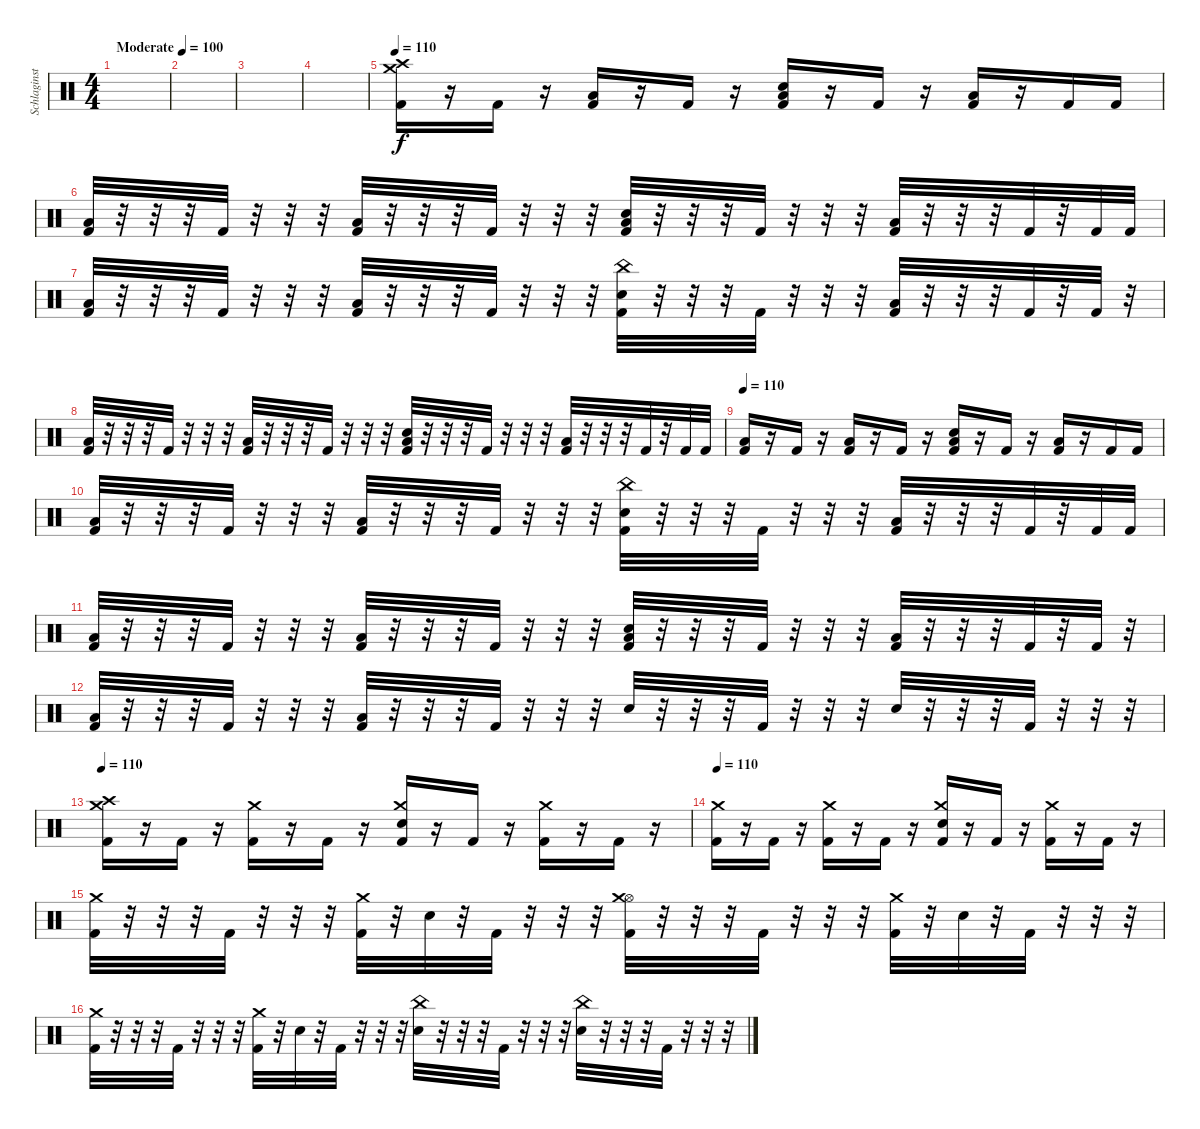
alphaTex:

\track ("Schlaginstrumente - Auswahl" "Schlaginst") {instrument percussion}
\staff {score}
\articulation defaults
\ts (4 4)
\tempo (100 "Moderate")
\clef neutral
\ks c
|
|
|
|
\tempo 110
("Kick (hit) 2" "Crash high (hit)" "Crash medium (hit)").16 r.16 "Kick (hit) 2".16 r.16 ("Kick (hit) 2" "Low Floor Tom (hit)").16 r.16 "Kick (hit) 2".16 r.16 ("Kick (hit) 2" "Electric Snare (hit)" "Low Floor Tom (hit)").16 r.16 "Kick (hit) 2".16 r.16 ("Kick (hit) 2" "Low Floor Tom (hit)").16 r.16 "Kick (hit) 2".16 "Kick (hit) 2".16 |
("Kick (hit) 2" "Low Floor Tom (hit)").32 r.32 r.32 r.32 "Kick (hit) 2".32 r.32 r.32 r.32 ("Kick (hit) 2" "Low Floor Tom (hit)").32 r.32 r.32 r.32 "Kick (hit) 2".32 r.32 r.32 r.32 ("Kick (hit) 2" "Electric Snare (hit)" "Low Floor Tom (hit)").32 r.32 r.32 r.32 "Kick (hit) 2".32 r.32 r.32 r.32 ("Kick (hit) 2" "Low Floor Tom (hit)").32 r.32 r.32 r.32 "Kick (hit) 2".32 r.32 "Kick (hit) 2".32 "Kick (hit) 2".32 |
("Kick (hit) 2" "Low Floor Tom (hit)").32 r.32 r.32 r.32 "Kick (hit) 2".32 r.32 r.32 r.32 ("Kick (hit) 2" "Low Floor Tom (hit)").32 r.32 r.32 r.32 "Kick (hit) 2".32 r.32 r.32 r.32 ("Kick (hit) 2" "Electric Snare (hit)" "China (hit)").32 r.32 r.32 r.32 "Kick (hit) 2".32 r.32 r.32 r.32 ("Kick (hit) 2" "Low Floor Tom (hit)").32 r.32 r.32 r.32 "Kick (hit) 2".32 r.32 "Kick (hit) 2".32 r.32 |
("Kick (hit) 2" "Low Floor Tom (hit)").32 r.32 r.32 r.32 "Kick (hit) 2".32 r.32 r.32 r.32 ("Kick (hit) 2" "Low Floor Tom (hit)").32 r.32 r.32 r.32 "Kick (hit) 2".32 r.32 r.32 r.32 ("Kick (hit) 2" "Electric Snare (hit)" "Low Floor Tom (hit)").32 r.32 r.32 r.32 "Kick (hit) 2".32 r.32 r.32 r.32 ("Kick (hit) 2" "Low Floor Tom (hit)").32 r.32 r.32 r.32 "Kick (hit) 2".32 r.32 "Kick (hit) 2".32 "Kick (hit) 2".32 |
\tempo 110
("Kick (hit) 2" "Low Floor Tom (hit)").16 r.16 "Kick (hit) 2".16 r.16 ("Kick (hit) 2" "Low Floor Tom (hit)").16 r.16 "Kick (hit) 2".16 r.16 ("Kick (hit) 2" "Electric Snare (hit)" "Low Floor Tom (hit)").16 r.16 "Kick (hit) 2".16 r.16 ("Kick (hit) 2" "Low Floor Tom (hit)").16 r.16 "Kick (hit) 2".16 "Kick (hit) 2".16 |
("Kick (hit) 2" "Low Floor Tom (hit)").32 r.32 r.32 r.32 "Kick (hit) 2".32 r.32 r.32 r.32 ("Kick (hit) 2" "Low Floor Tom (hit)").32 r.32 r.32 r.32 "Kick (hit) 2".32 r.32 r.32 r.32 ("Kick (hit) 2" "Electric Snare (hit)" "China (hit)").32 r.32 r.32 r.32 "Kick (hit) 2".32 r.32 r.32 r.32 ("Kick (hit) 2" "Low Floor Tom (hit)").32 r.32 r.32 r.32 "Kick (hit) 2".32 r.32 "Kick (hit) 2".32 "Kick (hit) 2".32 |
("Kick (hit) 2" "Low Floor Tom (hit)").32 r.32 r.32 r.32 "Kick (hit) 2".32 r.32 r.32 r.32 ("Kick (hit) 2" "Low Floor Tom (hit)").32 r.32 r.32 r.32 "Kick (hit) 2".32 r.32 r.32 r.32 ("Kick (hit) 2" "Electric Snare (hit)" "Low Floor Tom (hit)").32 r.32 r.32 r.32 "Kick (hit) 2".32 r.32 r.32 r.32 ("Kick (hit) 2" "Low Floor Tom (hit)").32 r.32 r.32 r.32 "Kick (hit) 2".32 r.32 "Kick (hit) 2".32 r.32 |
("Kick (hit) 2" "Low Floor Tom (hit)").32 r.32 r.32 r.32 "Kick (hit) 2".32 r.32 r.32 r.32 ("Kick (hit) 2" "Low Floor Tom (hit)").32 r.32 r.32 r.32 "Kick (hit) 2".32 r.32 r.32 r.32 "Electric Snare (hit)".32 r.32 r.32 r.32 "Kick (hit) 2".32 r.32 r.32 r.32 "Electric Snare (hit)".32 r.32 r.32 r.32 "Kick (hit) 2".32 r.32 r.32 r.32 |
\tempo 110
("Kick (hit) 2" "Crash high (hit)" "Crash medium (hit)").16 r.16 "Kick (hit) 2".16 r.16 ("Kick (hit) 2" "Crash medium (hit)").16 r.16 "Kick (hit) 2".16 r.16 ("Kick (hit) 2" "Electric Snare (hit)" "Crash medium (hit)").16 r.16 "Kick (hit) 2".16 r.16 ("Kick (hit) 2" "Crash medium (hit)").16 r.16 "Kick (hit) 2".16 r.16 |
\tempo 110
("Kick (hit) 2" "Crash medium (hit)").16 r.16 "Kick (hit) 2".16 r.16 ("Kick (hit) 2" "Crash medium (hit)").16 r.16 "Kick (hit) 2".16 r.16 ("Kick (hit) 2" "Electric Snare (hit)" "Crash medium (hit)").16 r.16 "Kick (hit) 2".16 r.16 ("Kick (hit) 2" "Crash medium (hit)").16 r.16 "Kick (hit) 2".16 r.16 |
("Kick (hit) 2" "Crash medium (hit)").32 r.32 r.32 r.32 "Kick (hit) 2".32 r.32 r.32 r.32 ("Kick (hit) 2" "Crash medium (hit)").32 r.32 "Electric Snare (hit)".32 r.32 "Kick (hit) 2".32 r.32 r.32 r.32 ("Kick (hit) 2" "Hi-Hat (open)" "Crash medium (hit)").32 r.32 r.32 r.32 "Kick (hit) 2".32 r.32 r.32 r.32 ("Kick (hit) 2" "Crash medium (hit)").32 r.32 "Electric Snare (hit)".32 r.32 "Kick (hit) 2".32 r.32 r.32 r.32 |
("Kick (hit) 2" "Crash medium (hit)").32 r.32 r.32 r.32 "Kick (hit) 2".32 r.32 r.32 r.32 ("Kick (hit) 2" "Crash medium (hit)").32 r.32 "Electric Snare (hit)".32 r.32 "Kick (hit) 2".32 r.32 r.32 r.32 ("Electric Snare (hit)" "China (hit)").32 r.32 r.32 r.32 "Kick (hit) 2".32 r.32 r.32 r.32 ("Electric Snare (hit)" "China (hit)").32 r.32 r.32 r.32 "Kick (hit) 2".32 r.32 r.32 r.32
